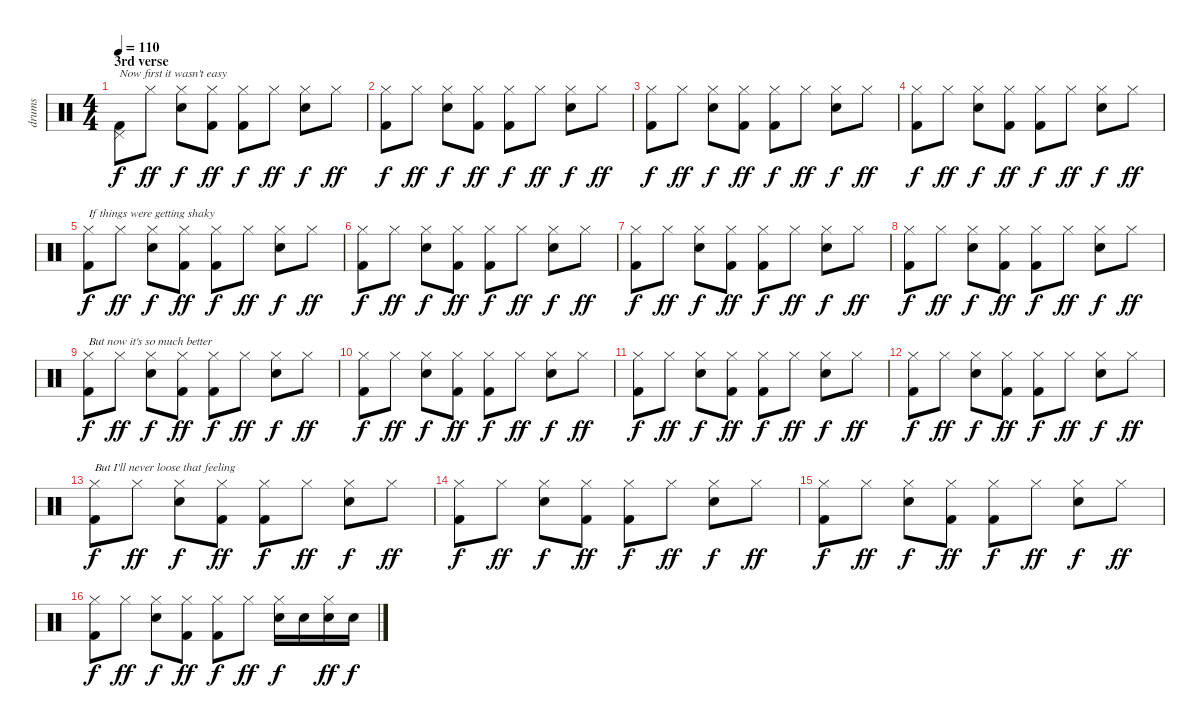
\track ("drums" "drums") {instrument percussion}
\staff {score}
\articulation defaults
\ts (4 4)
\section ("" "3rd verse")
\tempo 110
\clef neutral
\ks aminor
("Pedal Hi-Hat (hit)" "Kick (hit) 2").8{txt "Now first it wasn't easy" dy f} "Hi-Hat (closed)".8{dy ff} ("Hi-Hat (closed)" "Snare (hit) 2").8{dy f} ("Hi-Hat (closed)" "Kick (hit) 2").8{dy ff} ("Hi-Hat (closed)" "Kick (hit) 2").8{dy f} "Hi-Hat (closed)".8{dy ff} ("Hi-Hat (closed)" "Snare (hit) 2").8{dy f} "Hi-Hat (closed)".8{dy ff} |
("Hi-Hat (closed)" "Kick (hit) 2").8{dy f} "Hi-Hat (closed)".8{dy ff} ("Hi-Hat (closed)" "Snare (hit) 2").8{dy f} ("Hi-Hat (closed)" "Kick (hit) 2").8{dy ff} ("Hi-Hat (closed)" "Kick (hit) 2").8{dy f} "Hi-Hat (closed)".8{dy ff} ("Hi-Hat (closed)" "Snare (hit) 2").8{dy f} "Hi-Hat (closed)".8{dy ff} |
("Hi-Hat (closed)" "Kick (hit) 2").8{dy f} "Hi-Hat (closed)".8{dy ff} ("Hi-Hat (closed)" "Snare (hit) 2").8{dy f} ("Hi-Hat (closed)" "Kick (hit) 2").8{dy ff} ("Hi-Hat (closed)" "Kick (hit) 2").8{dy f} "Hi-Hat (closed)".8{dy ff} ("Hi-Hat (closed)" "Snare (hit) 2").8{dy f} "Hi-Hat (closed)".8{dy ff} |
("Hi-Hat (closed)" "Kick (hit) 2").8{dy f} "Hi-Hat (closed)".8{dy ff} ("Hi-Hat (closed)" "Snare (hit) 2").8{dy f} ("Hi-Hat (closed)" "Kick (hit) 2").8{dy ff} ("Hi-Hat (closed)" "Kick (hit) 2").8{dy f} "Hi-Hat (closed)".8{dy ff} ("Hi-Hat (closed)" "Snare (hit) 2").8{dy f} "Hi-Hat (closed)".8{dy ff} |
("Hi-Hat (closed)" "Kick (hit) 2").8{txt "If things were getting shaky" dy f} "Hi-Hat (closed)".8{dy ff} ("Hi-Hat (closed)" "Snare (hit) 2").8{dy f} ("Hi-Hat (closed)" "Kick (hit) 2").8{dy ff} ("Hi-Hat (closed)" "Kick (hit) 2").8{dy f} "Hi-Hat (closed)".8{dy ff} ("Hi-Hat (closed)" "Snare (hit) 2").8{dy f} "Hi-Hat (closed)".8{dy ff} |
("Hi-Hat (closed)" "Kick (hit) 2").8{dy f} "Hi-Hat (closed)".8{dy ff} ("Hi-Hat (closed)" "Snare (hit) 2").8{dy f} ("Hi-Hat (closed)" "Kick (hit) 2").8{dy ff} ("Hi-Hat (closed)" "Kick (hit) 2").8{dy f} "Hi-Hat (closed)".8{dy ff} ("Hi-Hat (closed)" "Snare (hit) 2").8{dy f} "Hi-Hat (closed)".8{dy ff} |
("Hi-Hat (closed)" "Kick (hit) 2").8{dy f} "Hi-Hat (closed)".8{dy ff} ("Hi-Hat (closed)" "Snare (hit) 2").8{dy f} ("Hi-Hat (closed)" "Kick (hit) 2").8{dy ff} ("Hi-Hat (closed)" "Kick (hit) 2").8{dy f} "Hi-Hat (closed)".8{dy ff} ("Hi-Hat (closed)" "Snare (hit) 2").8{dy f} "Hi-Hat (closed)".8{dy ff} |
("Hi-Hat (closed)" "Kick (hit) 2").8{dy f} "Hi-Hat (closed)".8{dy ff} ("Hi-Hat (closed)" "Snare (hit) 2").8{dy f} ("Hi-Hat (closed)" "Kick (hit) 2").8{dy ff} ("Hi-Hat (closed)" "Kick (hit) 2").8{dy f} "Hi-Hat (closed)".8{dy ff} ("Hi-Hat (closed)" "Snare (hit) 2").8{dy f} "Hi-Hat (closed)".8{dy ff} |
("Hi-Hat (closed)" "Kick (hit) 2").8{txt "But now it's so much better" dy f} "Hi-Hat (closed)".8{dy ff} ("Hi-Hat (closed)" "Snare (hit) 2").8{dy f} ("Hi-Hat (closed)" "Kick (hit) 2").8{dy ff} ("Hi-Hat (closed)" "Kick (hit) 2").8{dy f} "Hi-Hat (closed)".8{dy ff} ("Hi-Hat (closed)" "Snare (hit) 2").8{dy f} "Hi-Hat (closed)".8{dy ff} |
("Hi-Hat (closed)" "Kick (hit) 2").8{dy f} "Hi-Hat (closed)".8{dy ff} ("Hi-Hat (closed)" "Snare (hit) 2").8{dy f} ("Hi-Hat (closed)" "Kick (hit) 2").8{dy ff} ("Hi-Hat (closed)" "Kick (hit) 2").8{dy f} "Hi-Hat (closed)".8{dy ff} ("Hi-Hat (closed)" "Snare (hit) 2").8{dy f} "Hi-Hat (closed)".8{dy ff} |
("Hi-Hat (closed)" "Kick (hit) 2").8{dy f} "Hi-Hat (closed)".8{dy ff} ("Hi-Hat (closed)" "Snare (hit) 2").8{dy f} ("Hi-Hat (closed)" "Kick (hit) 2").8{dy ff} ("Hi-Hat (closed)" "Kick (hit) 2").8{dy f} "Hi-Hat (closed)".8{dy ff} ("Hi-Hat (closed)" "Snare (hit) 2").8{dy f} "Hi-Hat (closed)".8{dy ff} |
("Hi-Hat (closed)" "Kick (hit) 2").8{dy f} "Hi-Hat (closed)".8{dy ff} ("Hi-Hat (closed)" "Snare (hit) 2").8{dy f} ("Hi-Hat (closed)" "Kick (hit) 2").8{dy ff} ("Hi-Hat (closed)" "Kick (hit) 2").8{dy f} "Hi-Hat (closed)".8{dy ff} ("Hi-Hat (closed)" "Snare (hit) 2").8{dy f} "Hi-Hat (closed)".8{dy ff} |
("Hi-Hat (closed)" "Kick (hit) 2").8{txt "But I'll never loose that feeling" dy f} "Hi-Hat (closed)".8{dy ff} ("Hi-Hat (closed)" "Snare (hit) 2").8{dy f} ("Hi-Hat (closed)" "Kick (hit) 2").8{dy ff} ("Hi-Hat (closed)" "Kick (hit) 2").8{dy f} "Hi-Hat (closed)".8{dy ff} ("Hi-Hat (closed)" "Snare (hit) 2").8{dy f} "Hi-Hat (closed)".8{dy ff} |
("Hi-Hat (closed)" "Kick (hit) 2").8{dy f} "Hi-Hat (closed)".8{dy ff} ("Hi-Hat (closed)" "Snare (hit) 2").8{dy f} ("Hi-Hat (closed)" "Kick (hit) 2").8{dy ff} ("Hi-Hat (closed)" "Kick (hit) 2").8{dy f} "Hi-Hat (closed)".8{dy ff} ("Hi-Hat (closed)" "Snare (hit) 2").8{dy f} "Hi-Hat (closed)".8{dy ff} |
("Hi-Hat (closed)" "Kick (hit) 2").8{dy f} "Hi-Hat (closed)".8{dy ff} ("Hi-Hat (closed)" "Snare (hit) 2").8{dy f} ("Hi-Hat (closed)" "Kick (hit) 2").8{dy ff} ("Hi-Hat (closed)" "Kick (hit) 2").8{dy f} "Hi-Hat (closed)".8{dy ff} ("Hi-Hat (closed)" "Snare (hit) 2").8{dy f} "Hi-Hat (closed)".8{dy ff} |
("Hi-Hat (closed)" "Kick (hit) 2").8{dy f} "Hi-Hat (closed)".8{dy ff} ("Hi-Hat (closed)" "Snare (hit) 2").8{dy f} ("Hi-Hat (closed)" "Kick (hit) 2").8{dy ff} ("Hi-Hat (closed)" "Kick (hit) 2").8{dy f} "Hi-Hat (closed)".8{dy ff} ("Hi-Hat (closed)" "Snare (hit) 2").16{dy f} "Snare (hit) 2".16 ("Hi-Hat (closed)" "Snare (hit) 2").16{dy ff} "Snare (hit) 2".16{dy f}
